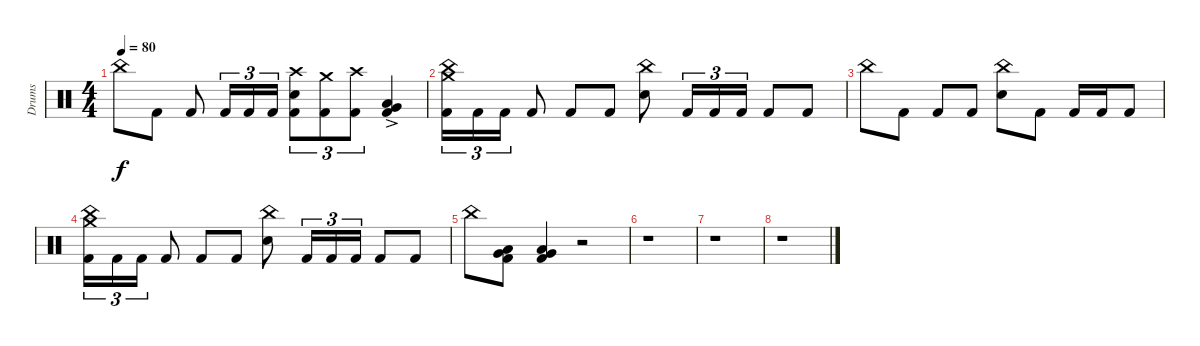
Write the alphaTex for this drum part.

\track ("Drums" "Drums") {instrument percussion}
\staff {score}
\articulation defaults
\ts (4 4)
\tempo 80
\clef neutral
\ks c "China (hit)".8{dy f} "Kick (hit) 2".8 "Kick (hit) 2".8 "Kick (hit) 2".16{tu (3 2)} "Kick (hit) 2".16{tu (3 2)} "Kick (hit) 2".16{tu (3 2)}
("Crash high (hit)" "Electric Snare (hit)" "Kick (hit) 2").8{tu (3 2)} ("Crash medium (hit)" "Kick (hit) 2").8{tu (3 2)} ("Crash high (hit)" "Kick (hit) 2").8{tu (3 2)} ("Very Low Tom (hit)"{ac} "Low Floor Tom (hit)"{ac} "Kick (hit) 2").4 |
("Crash medium (hit)" "China (hit)" "Kick (hit) 2").16{tu (3 2)} "Kick (hit) 2".16{tu (3 2)} "Kick (hit) 2".16{tu (3 2)} "Kick (hit) 2".8 "Kick (hit) 2".8 "Kick (hit) 2".8 ("China (hit)" "Electric Snare (hit)").8 "Kick (hit) 2".16{tu (3 2)} "Kick (hit) 2".16{tu (3 2)} "Kick (hit) 2".16{tu (3 2)} "Kick (hit) 2".8 "Kick (hit) 2".8 |
"China (hit)".8 "Kick (hit) 2".8 "Kick (hit) 2".8 "Kick (hit) 2".8 ("China (hit)" "Electric Snare (hit)").8 "Kick (hit) 2".8 "Kick (hit) 2".16 "Kick (hit) 2".16 "Kick (hit) 2".8 |
("Crash medium (hit)" "China (hit)" "Kick (hit) 2").16{tu (3 2)} "Kick (hit) 2".16{tu (3 2)} "Kick (hit) 2".16{tu (3 2)} "Kick (hit) 2".8 "Kick (hit) 2".8 "Kick (hit) 2".8 ("China (hit)" "Electric Snare (hit)").8 "Kick (hit) 2".16{tu (3 2)} "Kick (hit) 2".16{tu (3 2)} "Kick (hit) 2".16{tu (3 2)} "Kick (hit) 2".8 "Kick (hit) 2".8 |
"China (hit)".8 ("Very Low Tom (hit)" "Low Floor Tom (hit)" "Kick (hit) 2").8 ("Very Low Tom (hit)" "Low Floor Tom (hit)" "Kick (hit) 2").4 r.2 |
r.1 |
r.1 |
r.1
